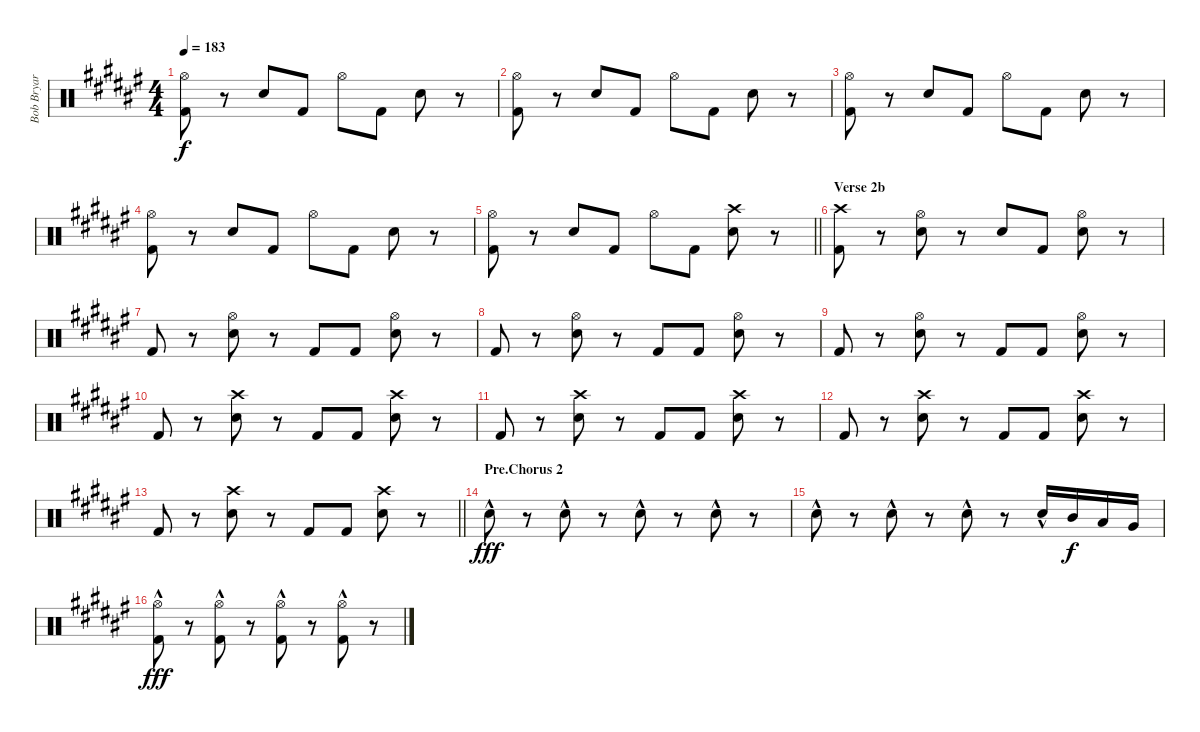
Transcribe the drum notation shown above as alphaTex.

\track ("Bob Bryar" "Bob Bryar") {instrument percussion}
\staff {score}
\articulation defaults
\ts (4 4)
\tempo 183
\clef neutral
\ks d#minor
("Hi-Hat (open)" "Kick (hit) 2").8{dy f} r.8 "Electric Snare (hit)".8 "Kick (hit) 2".8 "Hi-Hat (open)".8 "Kick (hit) 2".8 "Electric Snare (hit)".8 r.8 |
("Hi-Hat (open)" "Kick (hit) 2").8 r.8 "Electric Snare (hit)".8 "Kick (hit) 2".8 "Hi-Hat (open)".8 "Kick (hit) 2".8 "Electric Snare (hit)".8 r.8 |
("Hi-Hat (open)" "Kick (hit) 2").8 r.8 "Electric Snare (hit)".8 "Kick (hit) 2".8 "Hi-Hat (open)".8 "Kick (hit) 2".8 "Electric Snare (hit)".8 r.8 |
("Hi-Hat (open)" "Kick (hit) 2").8 r.8 "Electric Snare (hit)".8 "Kick (hit) 2".8 "Hi-Hat (open)".8 "Kick (hit) 2".8 "Electric Snare (hit)".8 r.8 |
\barLineRight lightlight
("Hi-Hat (open)" "Kick (hit) 2").8 r.8 "Electric Snare (hit)".8 "Kick (hit) 2".8 "Hi-Hat (open)".8 "Kick (hit) 2".8 ("Crash high (hit)" "Electric Snare (hit)").8 r.8 |
\section ("" "Verse 2b")
("Crash high (hit)" "Kick (hit) 2").8 r.8 ("Hi-Hat (open)" "Electric Snare (hit)").8 r.8 "Electric Snare (hit)".8 "Kick (hit) 2".8 ("Hi-Hat (open)" "Electric Snare (hit)").8 r.8 |
"Kick (hit) 2".8 r.8 ("Hi-Hat (open)" "Electric Snare (hit)").8 r.8 "Kick (hit) 2".8 "Kick (hit) 2".8 ("Hi-Hat (open)" "Electric Snare (hit)").8 r.8 |
"Kick (hit) 2".8 r.8 ("Hi-Hat (open)" "Electric Snare (hit)").8 r.8 "Kick (hit) 2".8 "Kick (hit) 2".8 ("Hi-Hat (open)" "Electric Snare (hit)").8 r.8 |
"Kick (hit) 2".8 r.8 ("Hi-Hat (open)" "Electric Snare (hit)").8 r.8 "Kick (hit) 2".8 "Kick (hit) 2".8 ("Hi-Hat (open)" "Electric Snare (hit)").8 r.8 |
"Kick (hit) 2".8 r.8 ("Crash high (hit)" "Electric Snare (hit)").8 r.8 "Kick (hit) 2".8 "Kick (hit) 2".8 ("Crash high (hit)" "Electric Snare (hit)").8 r.8 |
"Kick (hit) 2".8 r.8 ("Crash high (hit)" "Electric Snare (hit)").8 r.8 "Kick (hit) 2".8 "Kick (hit) 2".8 ("Crash high (hit)" "Electric Snare (hit)").8 r.8 |
"Kick (hit) 2".8 r.8 ("Crash high (hit)" "Electric Snare (hit)").8 r.8 "Kick (hit) 2".8 "Kick (hit) 2".8 ("Crash high (hit)" "Electric Snare (hit)").8 r.8 |
\barLineRight lightlight "Kick (hit) 2".8
r.8 ("Crash high (hit)" "Electric Snare (hit)").8 r.8 "Kick (hit) 2".8 "Kick (hit) 2".8 ("Crash high (hit)" "Electric Snare (hit)").8 r.8 |
\section ("" "Pre.Chorus 2")
"Electric Snare (hit)"{hac}.8{dy fff} r.8 "Electric Snare (hit)"{hac}.8 r.8 "Electric Snare (hit)"{hac}.8 r.8 "Electric Snare (hit)"{hac}.8 r.8 |
"Electric Snare (hit)"{hac}.8 r.8 "Electric Snare (hit)"{hac}.8 r.8 "Electric Snare (hit)"{hac}.8 r.8 "Electric Snare (hit)"{hac}.16 "Mid Tom (hit)".16{dy f} "Low Tom (hit)".16 "Very Low Tom (hit)".16 |
("Hi-Hat (open)" "Kick (hit) 2"{hac}).8{dy fff} r.8 ("Hi-Hat (open)" "Kick (hit) 2"{hac}).8 r.8 ("Hi-Hat (open)" "Kick (hit) 2"{hac}).8 r.8 ("Hi-Hat (open)" "Kick (hit) 2"{hac}).8 r.8
